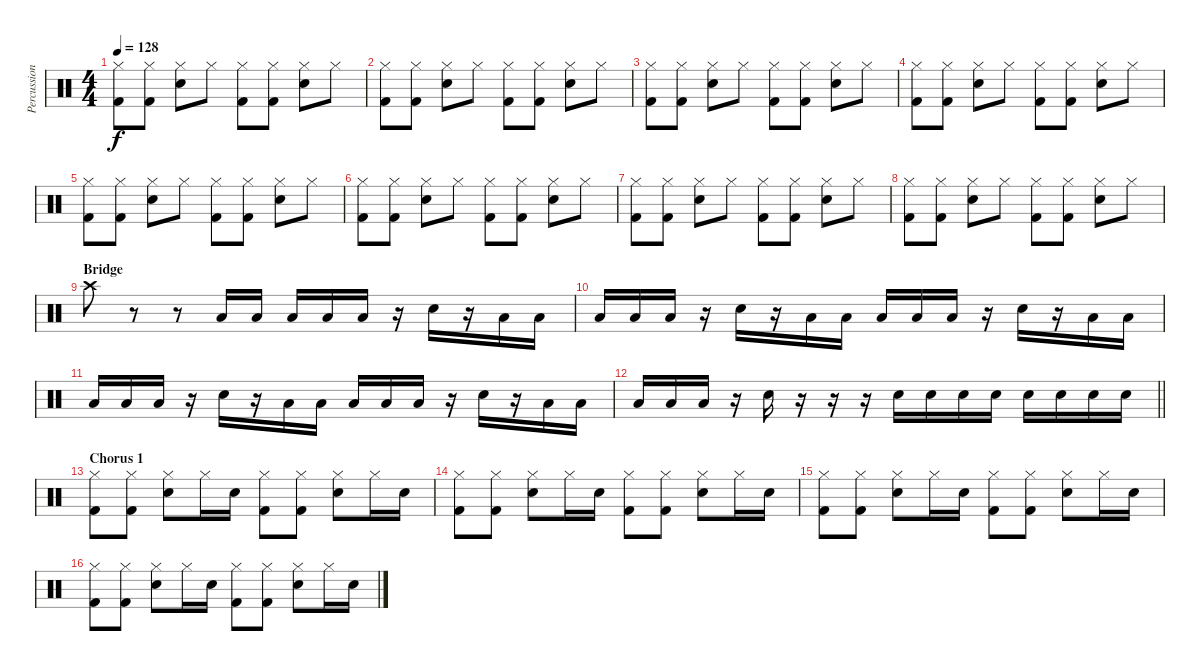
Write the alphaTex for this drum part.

\track ("Percussion" "Percussion") {instrument percussion}
\staff {score}
\articulation defaults
\ts (4 4)
\tempo 128
\clef neutral
\ks c
("Hi-Hat (closed)" "Kick (hit) 2").8{dy f} ("Hi-Hat (closed)" "Kick (hit) 2").8 ("Hi-Hat (closed)" "Snare (hit) 2").8 "Hi-Hat (closed)".8 ("Hi-Hat (closed)" "Kick (hit) 2").8 ("Hi-Hat (closed)" "Kick (hit) 2").8 ("Hi-Hat (closed)" "Snare (hit) 2").8 "Hi-Hat (closed)".8 |
("Hi-Hat (closed)" "Kick (hit) 2").8 ("Hi-Hat (closed)" "Kick (hit) 2").8 ("Hi-Hat (closed)" "Snare (hit) 2").8 "Hi-Hat (closed)".8 ("Hi-Hat (closed)" "Kick (hit) 2").8 ("Hi-Hat (closed)" "Kick (hit) 2").8 ("Hi-Hat (closed)" "Snare (hit) 2").8 "Hi-Hat (closed)".8 |
("Hi-Hat (closed)" "Kick (hit) 2").8 ("Hi-Hat (closed)" "Kick (hit) 2").8 ("Hi-Hat (closed)" "Snare (hit) 2").8 "Hi-Hat (closed)".8 ("Hi-Hat (closed)" "Kick (hit) 2").8 ("Hi-Hat (closed)" "Kick (hit) 2").8 ("Hi-Hat (closed)" "Snare (hit) 2").8 "Hi-Hat (closed)".8 |
("Hi-Hat (closed)" "Kick (hit) 2").8 ("Hi-Hat (closed)" "Kick (hit) 2").8 ("Hi-Hat (closed)" "Snare (hit) 2").8 "Hi-Hat (closed)".8 ("Hi-Hat (closed)" "Kick (hit) 2").8 ("Hi-Hat (closed)" "Kick (hit) 2").8 ("Hi-Hat (closed)" "Snare (hit) 2").8 "Hi-Hat (closed)".8 |
("Hi-Hat (closed)" "Kick (hit) 2").8 ("Hi-Hat (closed)" "Kick (hit) 2").8 ("Hi-Hat (closed)" "Snare (hit) 2").8 "Hi-Hat (closed)".8 ("Hi-Hat (closed)" "Kick (hit) 2").8 ("Hi-Hat (closed)" "Kick (hit) 2").8 ("Hi-Hat (closed)" "Snare (hit) 2").8 "Hi-Hat (closed)".8 |
("Hi-Hat (closed)" "Kick (hit) 2").8 ("Hi-Hat (closed)" "Kick (hit) 2").8 ("Hi-Hat (closed)" "Snare (hit) 2").8 "Hi-Hat (closed)".8 ("Hi-Hat (closed)" "Kick (hit) 2").8 ("Hi-Hat (closed)" "Kick (hit) 2").8 ("Hi-Hat (closed)" "Snare (hit) 2").8 "Hi-Hat (closed)".8 |
("Hi-Hat (closed)" "Kick (hit) 2").8 ("Hi-Hat (closed)" "Kick (hit) 2").8 ("Hi-Hat (closed)" "Snare (hit) 2").8 "Hi-Hat (closed)".8 ("Hi-Hat (closed)" "Kick (hit) 2").8 ("Hi-Hat (closed)" "Kick (hit) 2").8 ("Hi-Hat (closed)" "Snare (hit) 2").8 "Hi-Hat (closed)".8 |
("Hi-Hat (closed)" "Kick (hit) 2").8 ("Hi-Hat (closed)" "Kick (hit) 2").8 ("Hi-Hat (closed)" "Snare (hit) 2").8 "Hi-Hat (closed)".8 ("Hi-Hat (closed)" "Kick (hit) 2").8 ("Hi-Hat (closed)" "Kick (hit) 2").8 ("Hi-Hat (closed)" "Snare (hit) 2").8 "Hi-Hat (closed)".8 |
\section ("" "Bridge")
"Crash high (hit)".8 r.8 r.8 "Low Floor Tom (hit)".16 "Low Floor Tom (hit)".16 "Low Floor Tom (hit)".16 "Low Floor Tom (hit)".16 "Low Floor Tom (hit)".16 r.16 "Snare (hit) 2".16 r.16 "Low Floor Tom (hit)".16 "Low Floor Tom (hit)".16 |
"Low Floor Tom (hit)".16 "Low Floor Tom (hit)".16 "Low Floor Tom (hit)".16 r.16 "Snare (hit) 2".16 r.16 "Low Floor Tom (hit)".16 "Low Floor Tom (hit)".16 "Low Floor Tom (hit)".16 "Low Floor Tom (hit)".16 "Low Floor Tom (hit)".16 r.16 "Snare (hit) 2".16 r.16 "Low Floor Tom (hit)".16 "Low Floor Tom (hit)".16 |
"Low Floor Tom (hit)".16 "Low Floor Tom (hit)".16 "Low Floor Tom (hit)".16 r.16 "Snare (hit) 2".16 r.16 "Low Floor Tom (hit)".16 "Low Floor Tom (hit)".16 "Low Floor Tom (hit)".16 "Low Floor Tom (hit)".16 "Low Floor Tom (hit)".16 r.16 "Snare (hit) 2".16 r.16 "Low Floor Tom (hit)".16 "Low Floor Tom (hit)".16 |
\barLineRight lightlight "Low Floor Tom (hit)".16 "Low Floor Tom (hit)".16 "Low Floor Tom (hit)".16
r.16 "Snare (hit) 2".16 r.16 r.16 r.16 "Snare (hit) 2".16 "Snare (hit) 2".16 "Snare (hit) 2".16 "Snare (hit) 2".16 "Snare (hit) 2".16 "Snare (hit) 2".16 "Snare (hit) 2".16 "Snare (hit) 2".16 |
\section ("" "Chorus 1")
("Hi-Hat (closed)" "Kick (hit) 2").8 ("Hi-Hat (closed)" "Kick (hit) 2").8 ("Hi-Hat (closed)" "Snare (hit) 2").8 "Hi-Hat (closed)".16 "Snare (hit) 2".16 ("Hi-Hat (closed)" "Kick (hit) 2").8 ("Hi-Hat (closed)" "Kick (hit) 2").8 ("Hi-Hat (closed)" "Snare (hit) 2").8 "Hi-Hat (closed)".16 "Snare (hit) 2".16 |
("Hi-Hat (closed)" "Kick (hit) 2").8 ("Hi-Hat (closed)" "Kick (hit) 2").8 ("Hi-Hat (closed)" "Snare (hit) 2").8 "Hi-Hat (closed)".16 "Snare (hit) 2".16 ("Hi-Hat (closed)" "Kick (hit) 2").8 ("Hi-Hat (closed)" "Kick (hit) 2").8 ("Hi-Hat (closed)" "Snare (hit) 2").8 "Hi-Hat (closed)".16 "Snare (hit) 2".16 |
("Hi-Hat (closed)" "Kick (hit) 2").8 ("Hi-Hat (closed)" "Kick (hit) 2").8 ("Hi-Hat (closed)" "Snare (hit) 2").8 "Hi-Hat (closed)".16 "Snare (hit) 2".16 ("Hi-Hat (closed)" "Kick (hit) 2").8 ("Hi-Hat (closed)" "Kick (hit) 2").8 ("Hi-Hat (closed)" "Snare (hit) 2").8 "Hi-Hat (closed)".16 "Snare (hit) 2".16 |
("Hi-Hat (closed)" "Kick (hit) 2").8 ("Hi-Hat (closed)" "Kick (hit) 2").8 ("Hi-Hat (closed)" "Snare (hit) 2").8 "Hi-Hat (closed)".16 "Snare (hit) 2".16 ("Hi-Hat (closed)" "Kick (hit) 2").8 ("Hi-Hat (closed)" "Kick (hit) 2").8 ("Hi-Hat (closed)" "Snare (hit) 2").8 "Hi-Hat (closed)".16 "Snare (hit) 2".16
